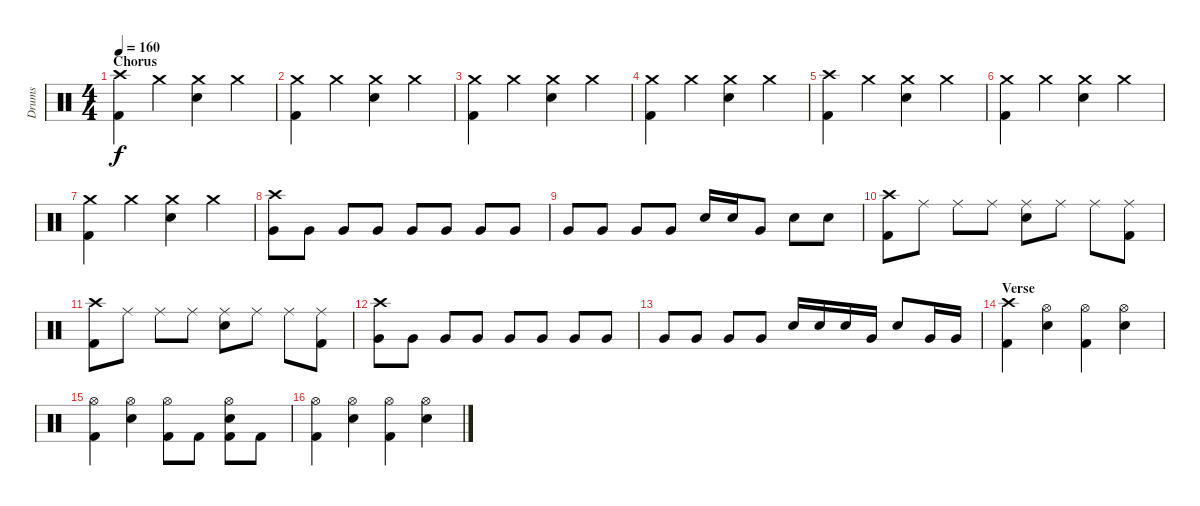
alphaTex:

\track ("Drums" "Drums") {instrument percussion}
\staff {score}
\articulation defaults
\ts (4 4)
\section ("" "Chorus")
\tempo 160
\clef neutral
\ks c
("Crash high (hit)" "Kick (hit) 2").4{dy f} "Crash medium (hit)".4 ("Crash medium (hit)" "Snare (hit) 2").4 "Crash medium (hit)".4 |
("Crash medium (hit)" "Kick (hit) 2").4 "Crash medium (hit)".4 ("Crash medium (hit)" "Snare (hit) 2").4 "Crash medium (hit)".4 |
("Crash medium (hit)" "Kick (hit) 2").4 "Crash medium (hit)".4 ("Crash medium (hit)" "Snare (hit) 2").4 "Crash medium (hit)".4 |
("Crash medium (hit)" "Kick (hit) 2").4 "Crash medium (hit)".4 ("Crash medium (hit)" "Snare (hit) 2").4 "Crash medium (hit)".4 |
("Crash high (hit)" "Kick (hit) 2").4 "Crash medium (hit)".4 ("Crash medium (hit)" "Snare (hit) 2").4 "Crash medium (hit)".4 |
("Crash medium (hit)" "Kick (hit) 2").4 "Crash medium (hit)".4 ("Crash medium (hit)" "Snare (hit) 2").4 "Crash medium (hit)".4 |
("Crash medium (hit)" "Kick (hit) 2").4 "Crash medium (hit)".4 ("Crash medium (hit)" "Snare (hit) 2").4 "Crash medium (hit)".4 |
("Crash high (hit)" "Very Low Tom (hit)").8 "Very Low Tom (hit)".8 "Very Low Tom (hit)".8 "Very Low Tom (hit)".8 "Very Low Tom (hit)".8 "Very Low Tom (hit)".8 "Very Low Tom (hit)".8 "Very Low Tom (hit)".8 |
"Very Low Tom (hit)".8 "Very Low Tom (hit)".8 "Very Low Tom (hit)".8 "Very Low Tom (hit)".8 "Snare (hit) 2".16 "Snare (hit) 2".16 "Very Low Tom (hit)".8 "Snare (hit) 2".8 "Snare (hit) 2".8 |
("Crash high (hit)" "Kick (hit) 2").8 "Ride (middle)".8 "Ride (middle)".8 "Ride (middle)".8 ("Ride (middle)" "Snare (hit) 2").8 "Ride (middle)".8 "Ride (middle)".8 ("Ride (middle)" "Kick (hit) 2").8 |
("Crash high (hit)" "Kick (hit) 2").8 "Ride (middle)".8 "Ride (middle)".8 "Ride (middle)".8 ("Ride (middle)" "Snare (hit) 2").8 "Ride (middle)".8 "Ride (middle)".8 ("Ride (middle)" "Kick (hit) 2").8 |
("Crash high (hit)" "Very Low Tom (hit)").8 "Very Low Tom (hit)".8 "Very Low Tom (hit)".8 "Very Low Tom (hit)".8 "Very Low Tom (hit)".8 "Very Low Tom (hit)".8 "Very Low Tom (hit)".8 "Very Low Tom (hit)".8 |
"Very Low Tom (hit)".8 "Very Low Tom (hit)".8 "Very Low Tom (hit)".8 "Very Low Tom (hit)".8 "Snare (hit) 2".16 "Snare (hit) 2".16 "Snare (hit) 2".16 "Very Low Tom (hit)".16 "Snare (hit) 2".8 "Very Low Tom (hit)".16 "Very Low Tom (hit)".16 |
\section ("" "Verse")
("Crash high (hit)" "Kick (hit) 2").4 ("Hi-Hat (open)" "Snare (hit) 2").4 ("Hi-Hat (open)" "Kick (hit) 2").4 ("Hi-Hat (open)" "Snare (hit) 2").4 |
("Hi-Hat (open)" "Kick (hit) 2").4 ("Hi-Hat (open)" "Snare (hit) 2").4 ("Hi-Hat (open)" "Kick (hit) 2").8 "Kick (hit) 2".8 ("Hi-Hat (open)" "Snare (hit) 2" "Kick (hit) 2").8 "Kick (hit) 2".8 |
("Hi-Hat (open)" "Kick (hit) 2").4 ("Hi-Hat (open)" "Snare (hit) 2").4 ("Hi-Hat (open)" "Kick (hit) 2").4 ("Hi-Hat (open)" "Snare (hit) 2").4
